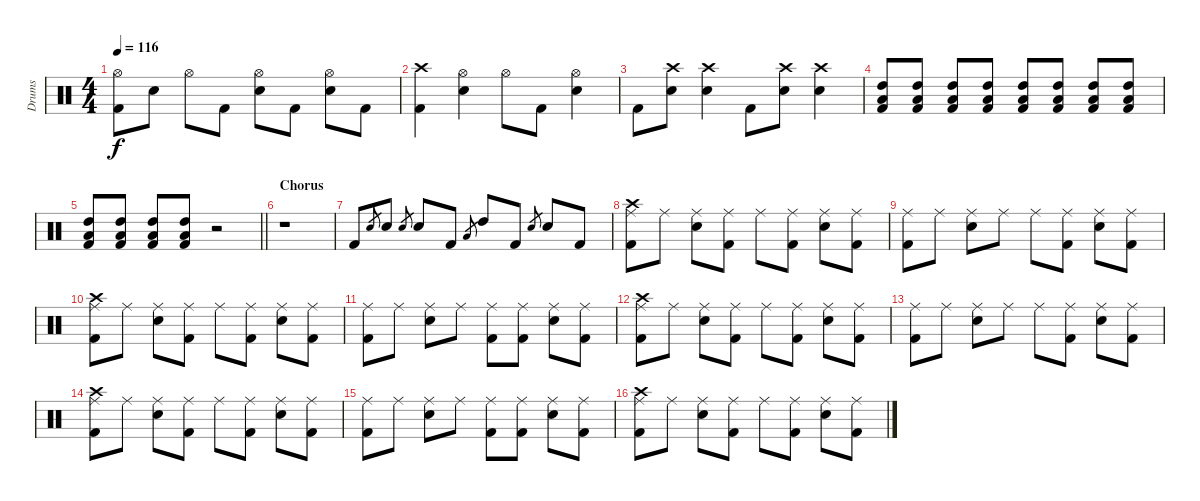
\track ("Drums" "Drums") {instrument percussion}
\staff {score}
\articulation defaults
\ts (4 4)
\tempo 116
\clef neutral
\ks c
("Hi-Hat (open)" "Kick (hit) 2").8{dy f} "Snare (hit) 2".8 "Hi-Hat (open)".8 "Kick (hit) 2".8 ("Hi-Hat (open)" "Snare (hit) 2").8 "Kick (hit) 2".8 ("Hi-Hat (open)" "Snare (hit) 2").8 "Kick (hit) 2".8 |
("Crash high (hit)" "Kick (hit) 2").4 ("Hi-Hat (open)" "Snare (hit) 2").4 "Hi-Hat (open)".8 "Kick (hit) 2".8 ("Hi-Hat (open)" "Snare (hit) 2").4 |
"Kick (hit) 2".8 ("Crash high (hit)" "Snare (hit) 2").8 ("Crash high (hit)" "Snare (hit) 2").4 "Kick (hit) 2".8 ("Crash high (hit)" "Snare (hit) 2").8 ("Crash high (hit)" "Snare (hit) 2").4 |
("High Tom (hit)" "Low Floor Tom (hit)" "Kick (hit) 2").8 ("High Tom (hit)" "Low Floor Tom (hit)" "Kick (hit) 2").8 ("High Tom (hit)" "Low Floor Tom (hit)" "Kick (hit) 2").8 ("High Tom (hit)" "Low Floor Tom (hit)" "Kick (hit) 2").8 ("High Tom (hit)" "Low Floor Tom (hit)" "Kick (hit) 2").8 ("High Tom (hit)" "Low Floor Tom (hit)" "Kick (hit) 2").8 ("High Tom (hit)" "Low Floor Tom (hit)" "Kick (hit) 2").8 ("High Tom (hit)" "Low Floor Tom (hit)" "Kick (hit) 2").8 |
\barLineRight lightlight
("High Tom (hit)" "Low Floor Tom (hit)" "Kick (hit) 2").8 ("High Tom (hit)" "Low Floor Tom (hit)" "Kick (hit) 2").8 ("High Tom (hit)" "Low Floor Tom (hit)" "Kick (hit) 2").8 ("High Tom (hit)" "Low Floor Tom (hit)" "Kick (hit) 2").8 r.2 |
\section ("" "Chorus")
r.1 |
"Kick (hit) 2".8 "Snare (hit) 2".8{gr} "Snare (hit) 2".8 "Snare (hit) 2".8{gr} "Snare (hit) 2".8 "Kick (hit) 2".8 "Low Floor Tom (hit)".8{gr} "High Tom (hit)".8 "Kick (hit) 2".8 "Snare (hit) 2".8{gr} "Snare (hit) 2".8 "Kick (hit) 2".8 |
("Crash high (hit)" "Ride (middle)" "Kick (hit) 2").8 "Ride (middle)".8 ("Ride (middle)" "Snare (hit) 2").8 ("Ride (middle)" "Kick (hit) 2").8 "Ride (middle)".8 ("Ride (middle)" "Kick (hit) 2").8 ("Ride (middle)" "Snare (hit) 2").8 ("Ride (middle)" "Kick (hit) 2").8 |
("Ride (middle)" "Kick (hit) 2").8 "Ride (middle)".8 ("Ride (middle)" "Snare (hit) 2").8 "Ride (middle)".8 "Ride (middle)".8 ("Ride (middle)" "Kick (hit) 2").8 ("Ride (middle)" "Snare (hit) 2").8 ("Ride (middle)" "Kick (hit) 2").8 |
("Crash high (hit)" "Ride (middle)" "Kick (hit) 2").8 "Ride (middle)".8 ("Ride (middle)" "Snare (hit) 2").8 ("Ride (middle)" "Kick (hit) 2").8 "Ride (middle)".8 ("Ride (middle)" "Kick (hit) 2").8 ("Ride (middle)" "Snare (hit) 2").8 ("Ride (middle)" "Kick (hit) 2").8 |
("Ride (middle)" "Kick (hit) 2").8 "Ride (middle)".8 ("Ride (middle)" "Snare (hit) 2").8 "Ride (middle)".8 ("Ride (middle)" "Kick (hit) 2").8 ("Ride (middle)" "Kick (hit) 2").8 ("Ride (middle)" "Snare (hit) 2").8 ("Ride (middle)" "Kick (hit) 2").8 |
("Crash high (hit)" "Ride (middle)" "Kick (hit) 2").8 "Ride (middle)".8 ("Ride (middle)" "Snare (hit) 2").8 ("Ride (middle)" "Kick (hit) 2").8 "Ride (middle)".8 ("Ride (middle)" "Kick (hit) 2").8 ("Ride (middle)" "Snare (hit) 2").8 ("Ride (middle)" "Kick (hit) 2").8 |
("Ride (middle)" "Kick (hit) 2").8 "Ride (middle)".8 ("Ride (middle)" "Snare (hit) 2").8 "Ride (middle)".8 "Ride (middle)".8 ("Ride (middle)" "Kick (hit) 2").8 ("Ride (middle)" "Snare (hit) 2").8 ("Ride (middle)" "Kick (hit) 2").8 |
("Crash high (hit)" "Ride (middle)" "Kick (hit) 2").8 "Ride (middle)".8 ("Ride (middle)" "Snare (hit) 2").8 ("Ride (middle)" "Kick (hit) 2").8 "Ride (middle)".8 ("Ride (middle)" "Kick (hit) 2").8 ("Ride (middle)" "Snare (hit) 2").8 ("Ride (middle)" "Kick (hit) 2").8 |
("Ride (middle)" "Kick (hit) 2").8 "Ride (middle)".8 ("Ride (middle)" "Snare (hit) 2").8 "Ride (middle)".8 ("Ride (middle)" "Kick (hit) 2").8 ("Ride (middle)" "Kick (hit) 2").8 ("Ride (middle)" "Snare (hit) 2").8 ("Ride (middle)" "Kick (hit) 2").8 |
("Crash high (hit)" "Ride (middle)" "Kick (hit) 2").8 "Ride (middle)".8 ("Ride (middle)" "Snare (hit) 2").8 ("Ride (middle)" "Kick (hit) 2").8 "Ride (middle)".8 ("Ride (middle)" "Kick (hit) 2").8 ("Ride (middle)" "Snare (hit) 2").8 ("Ride (middle)" "Kick (hit) 2").8
